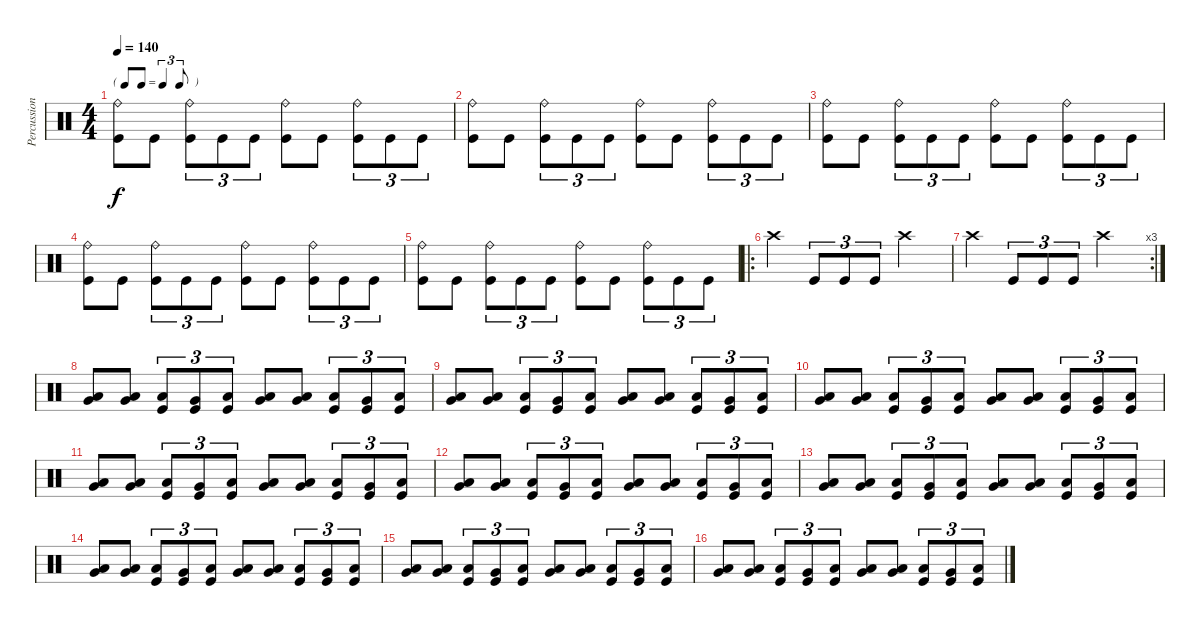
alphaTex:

\track ("Percussion" "Percussion") {instrument percussion}
\staff {score}
\articulation defaults
\ts (4 4)
\tf triplet8th
\tempo 140
\clef neutral
\ks c
("Ride (bell)" "Kick (hit)").8{dy f} "Kick (hit)".8 ("Ride (bell)" "Kick (hit)").8{tu (3 2)} "Kick (hit)".8{tu (3 2)} "Kick (hit)".8{tu (3 2)} ("Ride (bell)" "Kick (hit)").8 "Kick (hit)".8 ("Ride (bell)" "Kick (hit)").8{tu (3 2)} "Kick (hit)".8{tu (3 2)} "Kick (hit)".8{tu (3 2)} |
("Ride (bell)" "Kick (hit)").8 "Kick (hit)".8 ("Ride (bell)" "Kick (hit)").8{tu (3 2)} "Kick (hit)".8{tu (3 2)} "Kick (hit)".8{tu (3 2)} ("Ride (bell)" "Kick (hit)").8 "Kick (hit)".8 ("Ride (bell)" "Kick (hit)").8{tu (3 2)} "Kick (hit)".8{tu (3 2)} "Kick (hit)".8{tu (3 2)} |
("Ride (bell)" "Kick (hit)").8 "Kick (hit)".8 ("Ride (bell)" "Kick (hit)").8{tu (3 2)} "Kick (hit)".8{tu (3 2)} "Kick (hit)".8{tu (3 2)} ("Ride (bell)" "Kick (hit)").8 "Kick (hit)".8 ("Ride (bell)" "Kick (hit)").8{tu (3 2)} "Kick (hit)".8{tu (3 2)} "Kick (hit)".8{tu (3 2)} |
("Ride (bell)" "Kick (hit)").8 "Kick (hit)".8 ("Ride (bell)" "Kick (hit)").8{tu (3 2)} "Kick (hit)".8{tu (3 2)} "Kick (hit)".8{tu (3 2)} ("Ride (bell)" "Kick (hit)").8 "Kick (hit)".8 ("Ride (bell)" "Kick (hit)").8{tu (3 2)} "Kick (hit)".8{tu (3 2)} "Kick (hit)".8{tu (3 2)} |
("Ride (bell)" "Kick (hit)").8 "Kick (hit)".8 ("Ride (bell)" "Kick (hit)").8{tu (3 2)} "Kick (hit)".8{tu (3 2)} "Kick (hit)".8{tu (3 2)} ("Ride (bell)" "Kick (hit)").8 "Kick (hit)".8 ("Ride (bell)" "Kick (hit)").8{tu (3 2)} "Kick (hit)".8{tu (3 2)} "Kick (hit)".8{tu (3 2)} |
\ro "Crash high (hit)".4 "Kick (hit)".8{tu (3 2)} "Kick (hit)".8{tu (3 2)} "Kick (hit)".8{tu (3 2)} "Crash high (hit)".2
|
\rc 3 "Crash high (hit)".4 "Kick (hit)".8{tu (3 2)} "Kick (hit)".8{tu (3 2)} "Kick (hit)".8{tu (3 2)} "Crash high (hit)".2
|
("Very Low Tom (hit)" "Low Floor Tom (hit)").8 ("Very Low Tom (hit)" "Low Floor Tom (hit)").8 ("Low Floor Tom (hit)" "Kick (hit)").8{tu (3 2)} ("Very Low Tom (hit)" "Kick (hit)").8{tu (3 2)} ("Low Floor Tom (hit)" "Kick (hit)").8{tu (3 2)} ("Very Low Tom (hit)" "Low Floor Tom (hit)").8 ("Very Low Tom (hit)" "Low Floor Tom (hit)").8 ("Low Floor Tom (hit)" "Kick (hit)").8{tu (3 2)} ("Very Low Tom (hit)" "Kick (hit)").8{tu (3 2)} ("Low Floor Tom (hit)" "Kick (hit)").8{tu (3 2)} |
("Very Low Tom (hit)" "Low Floor Tom (hit)").8 ("Very Low Tom (hit)" "Low Floor Tom (hit)").8 ("Low Floor Tom (hit)" "Kick (hit)").8{tu (3 2)} ("Very Low Tom (hit)" "Kick (hit)").8{tu (3 2)} ("Low Floor Tom (hit)" "Kick (hit)").8{tu (3 2)} ("Very Low Tom (hit)" "Low Floor Tom (hit)").8 ("Very Low Tom (hit)" "Low Floor Tom (hit)").8 ("Low Floor Tom (hit)" "Kick (hit)").8{tu (3 2)} ("Very Low Tom (hit)" "Kick (hit)").8{tu (3 2)} ("Low Floor Tom (hit)" "Kick (hit)").8{tu (3 2)} |
("Very Low Tom (hit)" "Low Floor Tom (hit)").8 ("Very Low Tom (hit)" "Low Floor Tom (hit)").8 ("Low Floor Tom (hit)" "Kick (hit)").8{tu (3 2)} ("Very Low Tom (hit)" "Kick (hit)").8{tu (3 2)} ("Low Floor Tom (hit)" "Kick (hit)").8{tu (3 2)} ("Very Low Tom (hit)" "Low Floor Tom (hit)").8 ("Very Low Tom (hit)" "Low Floor Tom (hit)").8 ("Low Floor Tom (hit)" "Kick (hit)").8{tu (3 2)} ("Very Low Tom (hit)" "Kick (hit)").8{tu (3 2)} ("Low Floor Tom (hit)" "Kick (hit)").8{tu (3 2)} |
("Very Low Tom (hit)" "Low Floor Tom (hit)").8 ("Very Low Tom (hit)" "Low Floor Tom (hit)").8 ("Low Floor Tom (hit)" "Kick (hit)").8{tu (3 2)} ("Very Low Tom (hit)" "Kick (hit)").8{tu (3 2)} ("Low Floor Tom (hit)" "Kick (hit)").8{tu (3 2)} ("Very Low Tom (hit)" "Low Floor Tom (hit)").8 ("Very Low Tom (hit)" "Low Floor Tom (hit)").8 ("Low Floor Tom (hit)" "Kick (hit)").8{tu (3 2)} ("Very Low Tom (hit)" "Kick (hit)").8{tu (3 2)} ("Low Floor Tom (hit)" "Kick (hit)").8{tu (3 2)} |
("Very Low Tom (hit)" "Low Floor Tom (hit)").8 ("Very Low Tom (hit)" "Low Floor Tom (hit)").8 ("Low Floor Tom (hit)" "Kick (hit)").8{tu (3 2)} ("Very Low Tom (hit)" "Kick (hit)").8{tu (3 2)} ("Low Floor Tom (hit)" "Kick (hit)").8{tu (3 2)} ("Very Low Tom (hit)" "Low Floor Tom (hit)").8 ("Very Low Tom (hit)" "Low Floor Tom (hit)").8 ("Low Floor Tom (hit)" "Kick (hit)").8{tu (3 2)} ("Very Low Tom (hit)" "Kick (hit)").8{tu (3 2)} ("Low Floor Tom (hit)" "Kick (hit)").8{tu (3 2)} |
("Very Low Tom (hit)" "Low Floor Tom (hit)").8 ("Very Low Tom (hit)" "Low Floor Tom (hit)").8 ("Low Floor Tom (hit)" "Kick (hit)").8{tu (3 2)} ("Very Low Tom (hit)" "Kick (hit)").8{tu (3 2)} ("Low Floor Tom (hit)" "Kick (hit)").8{tu (3 2)} ("Very Low Tom (hit)" "Low Floor Tom (hit)").8 ("Very Low Tom (hit)" "Low Floor Tom (hit)").8 ("Low Floor Tom (hit)" "Kick (hit)").8{tu (3 2)} ("Very Low Tom (hit)" "Kick (hit)").8{tu (3 2)} ("Low Floor Tom (hit)" "Kick (hit)").8{tu (3 2)} |
("Very Low Tom (hit)" "Low Floor Tom (hit)").8 ("Very Low Tom (hit)" "Low Floor Tom (hit)").8 ("Low Floor Tom (hit)" "Kick (hit)").8{tu (3 2)} ("Very Low Tom (hit)" "Kick (hit)").8{tu (3 2)} ("Low Floor Tom (hit)" "Kick (hit)").8{tu (3 2)} ("Very Low Tom (hit)" "Low Floor Tom (hit)").8 ("Very Low Tom (hit)" "Low Floor Tom (hit)").8 ("Low Floor Tom (hit)" "Kick (hit)").8{tu (3 2)} ("Very Low Tom (hit)" "Kick (hit)").8{tu (3 2)} ("Low Floor Tom (hit)" "Kick (hit)").8{tu (3 2)} |
("Very Low Tom (hit)" "Low Floor Tom (hit)").8 ("Very Low Tom (hit)" "Low Floor Tom (hit)").8 ("Low Floor Tom (hit)" "Kick (hit)").8{tu (3 2)} ("Very Low Tom (hit)" "Kick (hit)").8{tu (3 2)} ("Low Floor Tom (hit)" "Kick (hit)").8{tu (3 2)} ("Very Low Tom (hit)" "Low Floor Tom (hit)").8 ("Very Low Tom (hit)" "Low Floor Tom (hit)").8 ("Low Floor Tom (hit)" "Kick (hit)").8{tu (3 2)} ("Very Low Tom (hit)" "Kick (hit)").8{tu (3 2)} ("Low Floor Tom (hit)" "Kick (hit)").8{tu (3 2)} |
("Very Low Tom (hit)" "Low Floor Tom (hit)").8 ("Very Low Tom (hit)" "Low Floor Tom (hit)").8 ("Low Floor Tom (hit)" "Kick (hit)").8{tu (3 2)} ("Very Low Tom (hit)" "Kick (hit)").8{tu (3 2)} ("Low Floor Tom (hit)" "Kick (hit)").8{tu (3 2)} ("Very Low Tom (hit)" "Low Floor Tom (hit)").8 ("Very Low Tom (hit)" "Low Floor Tom (hit)").8 ("Low Floor Tom (hit)" "Kick (hit)").8{tu (3 2)} ("Very Low Tom (hit)" "Kick (hit)").8{tu (3 2)} ("Low Floor Tom (hit)" "Kick (hit)").8{tu (3 2)}
